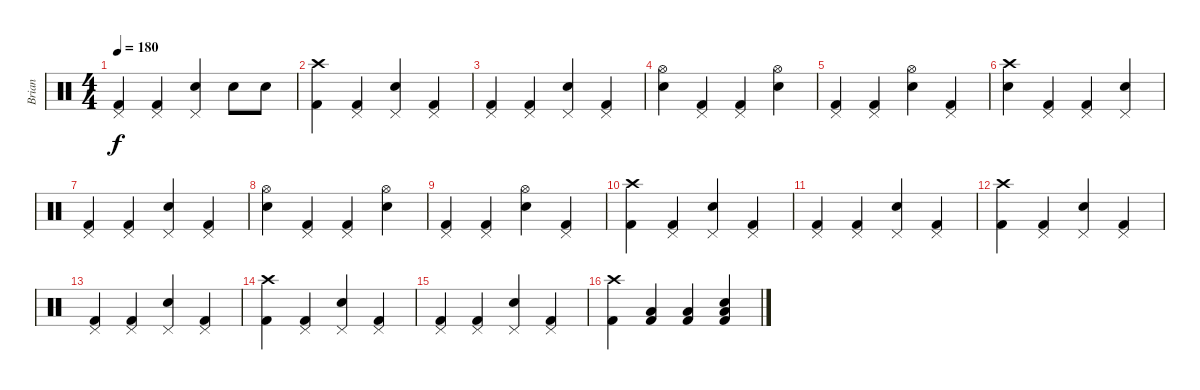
\track ("Brian" "Brian") {instrument percussion}
\staff {score}
\articulation defaults
\ts (4 4)
\tempo 180
\clef neutral
\ks c
("Pedal Hi-Hat (hit)" "Kick (hit) 2").4{dy f} ("Pedal Hi-Hat (hit)" "Kick (hit) 2").4 ("Pedal Hi-Hat (hit)" "Snare (hit) 2").4 "Snare (hit) 2".8 "Snare (hit) 2".8 |
("Crash high (hit)" "Kick (hit) 2").4 ("Pedal Hi-Hat (hit)" "Kick (hit) 2").4 ("Pedal Hi-Hat (hit)" "Snare (hit) 2").4 ("Pedal Hi-Hat (hit)" "Kick (hit) 2").4 |
("Pedal Hi-Hat (hit)" "Kick (hit) 2").4 ("Pedal Hi-Hat (hit)" "Kick (hit) 2").4 ("Pedal Hi-Hat (hit)" "Snare (hit) 2").4 ("Pedal Hi-Hat (hit)" "Kick (hit) 2").4 |
("Hi-Hat (open)" "Snare (hit) 2").4 ("Pedal Hi-Hat (hit)" "Kick (hit) 2").4 ("Pedal Hi-Hat (hit)" "Kick (hit) 2").4 ("Hi-Hat (open)" "Snare (hit) 2").4 |
("Pedal Hi-Hat (hit)" "Kick (hit) 2").4 ("Pedal Hi-Hat (hit)" "Kick (hit) 2").4 ("Hi-Hat (open)" "Snare (hit) 2").4 ("Pedal Hi-Hat (hit)" "Kick (hit) 2").4 |
("Crash high (hit)" "Snare (hit) 2").4 ("Pedal Hi-Hat (hit)" "Kick (hit) 2").4 ("Pedal Hi-Hat (hit)" "Kick (hit) 2").4 ("Pedal Hi-Hat (hit)" "Snare (hit) 2").4 |
("Pedal Hi-Hat (hit)" "Kick (hit) 2").4 ("Pedal Hi-Hat (hit)" "Kick (hit) 2").4 ("Pedal Hi-Hat (hit)" "Snare (hit) 2").4 ("Pedal Hi-Hat (hit)" "Kick (hit) 2").4 |
("Hi-Hat (open)" "Snare (hit) 2").4 ("Pedal Hi-Hat (hit)" "Kick (hit) 2").4 ("Pedal Hi-Hat (hit)" "Kick (hit) 2").4 ("Hi-Hat (open)" "Snare (hit) 2").4 |
("Pedal Hi-Hat (hit)" "Kick (hit) 2").4 ("Pedal Hi-Hat (hit)" "Kick (hit) 2").4 ("Hi-Hat (open)" "Snare (hit) 2").4 ("Pedal Hi-Hat (hit)" "Kick (hit) 2").4 |
("Crash high (hit)" "Kick (hit) 2").4 ("Pedal Hi-Hat (hit)" "Kick (hit) 2").4 ("Pedal Hi-Hat (hit)" "Snare (hit) 2").4 ("Pedal Hi-Hat (hit)" "Kick (hit) 2").4 |
("Pedal Hi-Hat (hit)" "Kick (hit) 2").4 ("Pedal Hi-Hat (hit)" "Kick (hit) 2").4 ("Pedal Hi-Hat (hit)" "Snare (hit) 2").4 ("Pedal Hi-Hat (hit)" "Kick (hit) 2").4 |
("Crash high (hit)" "Kick (hit) 2").4 ("Pedal Hi-Hat (hit)" "Kick (hit) 2").4 ("Pedal Hi-Hat (hit)" "Snare (hit) 2").4 ("Pedal Hi-Hat (hit)" "Kick (hit) 2").4 |
("Pedal Hi-Hat (hit)" "Kick (hit) 2").4 ("Pedal Hi-Hat (hit)" "Kick (hit) 2").4 ("Pedal Hi-Hat (hit)" "Snare (hit) 2").4 ("Pedal Hi-Hat (hit)" "Kick (hit) 2").4 |
("Crash high (hit)" "Kick (hit) 2").4 ("Pedal Hi-Hat (hit)" "Kick (hit) 2").4 ("Pedal Hi-Hat (hit)" "Snare (hit) 2").4 ("Pedal Hi-Hat (hit)" "Kick (hit) 2").4 |
("Pedal Hi-Hat (hit)" "Kick (hit) 2").4 ("Pedal Hi-Hat (hit)" "Kick (hit) 2").4 ("Pedal Hi-Hat (hit)" "Snare (hit) 2").4 ("Pedal Hi-Hat (hit)" "Kick (hit) 2").4 |
("Crash high (hit)" "Kick (hit) 2").4 ("Kick (hit) 2" "Low Floor Tom (hit)").4 ("Kick (hit) 2" "Low Floor Tom (hit)").4 ("Kick (hit) 2" "Snare (hit) 2" "Low Floor Tom (hit)").4
